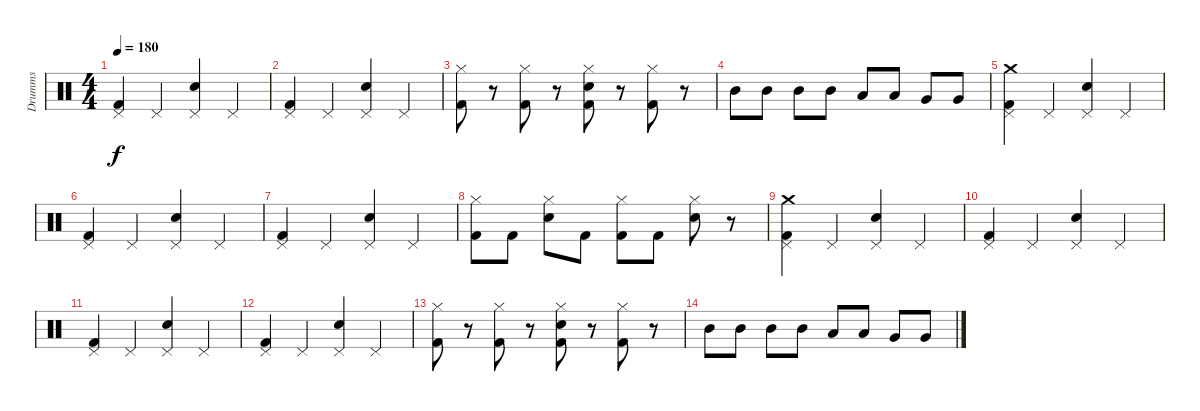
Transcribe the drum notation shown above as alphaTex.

\track ("Drumms" "Drumms") {instrument percussion}
\staff {score}
\articulation defaults
\ts (4 4)
\tempo 180
\clef neutral
\ks c
("Kick (hit) 2" "Pedal Hi-Hat (hit)").4{dy f} "Pedal Hi-Hat (hit)".4 ("Snare (hit) 2" "Pedal Hi-Hat (hit)").4 "Pedal Hi-Hat (hit)".4 |
("Kick (hit) 2" "Pedal Hi-Hat (hit)").4 "Pedal Hi-Hat (hit)".4 ("Snare (hit) 2" "Pedal Hi-Hat (hit)").4 "Pedal Hi-Hat (hit)".4 |
("Kick (hit) 2" "Hi-Hat (closed)").8 r.8 ("Kick (hit) 2" "Hi-Hat (closed)").8 r.8 ("Kick (hit) 2" "Snare (hit) 2" "Hi-Hat (closed)").8 r.8 ("Kick (hit) 2" "Hi-Hat (closed)").8 r.8 |
"Mid Tom (hit)".8 "Mid Tom (hit)".8 "Mid Tom (hit)".8 "Mid Tom (hit)".8 "Low Tom (hit)".8 "Low Tom (hit)".8 "Very Low Tom (hit)".8 "Very Low Tom (hit)".8 |
("Kick (hit) 2" "Crash medium (hit)" "Pedal Hi-Hat (hit)").4 "Pedal Hi-Hat (hit)".4 ("Snare (hit) 2" "Pedal Hi-Hat (hit)").4 "Pedal Hi-Hat (hit)".4 |
("Kick (hit) 2" "Pedal Hi-Hat (hit)").4 "Pedal Hi-Hat (hit)".4 ("Snare (hit) 2" "Pedal Hi-Hat (hit)").4 "Pedal Hi-Hat (hit)".4 |
("Kick (hit) 2" "Pedal Hi-Hat (hit)").4 "Pedal Hi-Hat (hit)".4 ("Snare (hit) 2" "Pedal Hi-Hat (hit)").4 "Pedal Hi-Hat (hit)".4 |
("Kick (hit) 2" "Hi-Hat (closed)").8 "Kick (hit) 2".8 ("Snare (hit) 2" "Hi-Hat (closed)").8 "Kick (hit) 2".8 ("Kick (hit) 2" "Hi-Hat (closed)").8 "Kick (hit) 2".8 ("Snare (hit) 2" "Hi-Hat (closed)").8 r.8 |
("Kick (hit) 2" "Crash medium (hit)" "Pedal Hi-Hat (hit)").4 "Pedal Hi-Hat (hit)".4 ("Snare (hit) 2" "Pedal Hi-Hat (hit)").4 "Pedal Hi-Hat (hit)".4 |
("Kick (hit) 2" "Pedal Hi-Hat (hit)").4 "Pedal Hi-Hat (hit)".4 ("Snare (hit) 2" "Pedal Hi-Hat (hit)").4 "Pedal Hi-Hat (hit)".4 |
("Kick (hit) 2" "Pedal Hi-Hat (hit)").4 "Pedal Hi-Hat (hit)".4 ("Snare (hit) 2" "Pedal Hi-Hat (hit)").4 "Pedal Hi-Hat (hit)".4 |
("Kick (hit) 2" "Pedal Hi-Hat (hit)").4 "Pedal Hi-Hat (hit)".4 ("Snare (hit) 2" "Pedal Hi-Hat (hit)").4 "Pedal Hi-Hat (hit)".4 |
("Kick (hit) 2" "Hi-Hat (closed)").8 r.8 ("Kick (hit) 2" "Hi-Hat (closed)").8 r.8 ("Kick (hit) 2" "Snare (hit) 2" "Hi-Hat (closed)").8 r.8 ("Kick (hit) 2" "Hi-Hat (closed)").8 r.8 |
"Mid Tom (hit)".8 "Mid Tom (hit)".8 "Mid Tom (hit)".8 "Mid Tom (hit)".8 "Low Tom (hit)".8 "Low Tom (hit)".8 "Very Low Tom (hit)".8 "Very Low Tom (hit)".8
